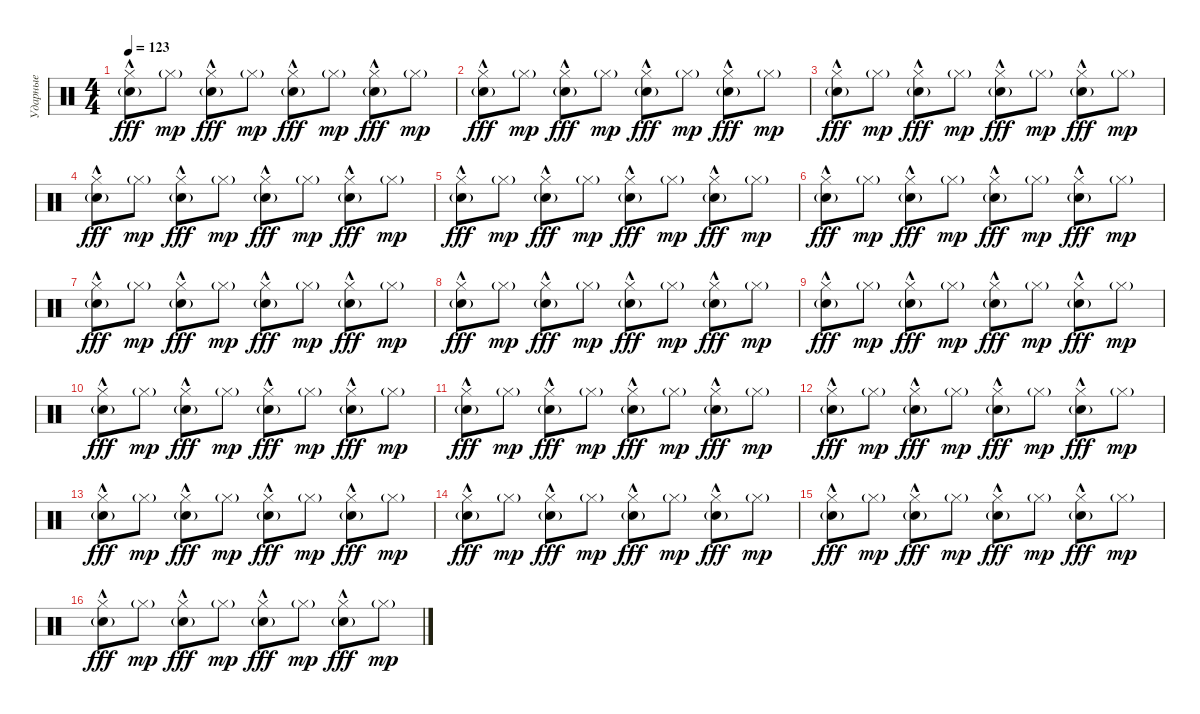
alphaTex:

\track ("Ударные" "Ударные") {instrument percussion}
\staff {score}
\articulation defaults
\ts (4 4)
\tempo 123
\clef neutral
\ks c
("Electric Snare (hit)"{g} "Hi-Hat (closed)"{hac}).8{dy fff} "Hi-Hat (closed)"{g}.8{dy mp} ("Electric Snare (hit)"{g} "Hi-Hat (closed)"{hac}).8{dy fff} "Hi-Hat (closed)"{g}.8{dy mp} ("Electric Snare (hit)"{g} "Hi-Hat (closed)"{hac}).8{dy fff} "Hi-Hat (closed)"{g}.8{dy mp} ("Electric Snare (hit)"{g} "Hi-Hat (closed)"{hac}).8{dy fff} "Hi-Hat (closed)"{g}.8{dy mp} |
("Electric Snare (hit)"{g} "Hi-Hat (closed)"{hac}).8{dy fff} "Hi-Hat (closed)"{g}.8{dy mp} ("Electric Snare (hit)"{g} "Hi-Hat (closed)"{hac}).8{dy fff} "Hi-Hat (closed)"{g}.8{dy mp} ("Electric Snare (hit)"{g} "Hi-Hat (closed)"{hac}).8{dy fff} "Hi-Hat (closed)"{g}.8{dy mp} ("Electric Snare (hit)"{g} "Hi-Hat (closed)"{hac}).8{dy fff} "Hi-Hat (closed)"{g}.8{dy mp} |
("Electric Snare (hit)"{g} "Hi-Hat (closed)"{hac}).8{dy fff} "Hi-Hat (closed)"{g}.8{dy mp} ("Electric Snare (hit)"{g} "Hi-Hat (closed)"{hac}).8{dy fff} "Hi-Hat (closed)"{g}.8{dy mp} ("Electric Snare (hit)"{g} "Hi-Hat (closed)"{hac}).8{dy fff} "Hi-Hat (closed)"{g}.8{dy mp} ("Electric Snare (hit)"{g} "Hi-Hat (closed)"{hac}).8{dy fff} "Hi-Hat (closed)"{g}.8{dy mp} |
("Electric Snare (hit)"{g} "Hi-Hat (closed)"{hac}).8{dy fff} "Hi-Hat (closed)"{g}.8{dy mp} ("Electric Snare (hit)"{g} "Hi-Hat (closed)"{hac}).8{dy fff} "Hi-Hat (closed)"{g}.8{dy mp} ("Electric Snare (hit)"{g} "Hi-Hat (closed)"{hac}).8{dy fff} "Hi-Hat (closed)"{g}.8{dy mp} ("Electric Snare (hit)"{g} "Hi-Hat (closed)"{hac}).8{dy fff} "Hi-Hat (closed)"{g}.8{dy mp} |
("Electric Snare (hit)"{g} "Hi-Hat (closed)"{hac}).8{dy fff} "Hi-Hat (closed)"{g}.8{dy mp} ("Electric Snare (hit)"{g} "Hi-Hat (closed)"{hac}).8{dy fff} "Hi-Hat (closed)"{g}.8{dy mp} ("Electric Snare (hit)"{g} "Hi-Hat (closed)"{hac}).8{dy fff} "Hi-Hat (closed)"{g}.8{dy mp} ("Electric Snare (hit)"{g} "Hi-Hat (closed)"{hac}).8{dy fff} "Hi-Hat (closed)"{g}.8{dy mp} |
("Electric Snare (hit)"{g} "Hi-Hat (closed)"{hac}).8{dy fff} "Hi-Hat (closed)"{g}.8{dy mp} ("Electric Snare (hit)"{g} "Hi-Hat (closed)"{hac}).8{dy fff} "Hi-Hat (closed)"{g}.8{dy mp} ("Electric Snare (hit)"{g} "Hi-Hat (closed)"{hac}).8{dy fff} "Hi-Hat (closed)"{g}.8{dy mp} ("Electric Snare (hit)"{g} "Hi-Hat (closed)"{hac}).8{dy fff} "Hi-Hat (closed)"{g}.8{dy mp} |
("Electric Snare (hit)"{g} "Hi-Hat (closed)"{hac}).8{dy fff} "Hi-Hat (closed)"{g}.8{dy mp} ("Electric Snare (hit)"{g} "Hi-Hat (closed)"{hac}).8{dy fff} "Hi-Hat (closed)"{g}.8{dy mp} ("Electric Snare (hit)"{g} "Hi-Hat (closed)"{hac}).8{dy fff} "Hi-Hat (closed)"{g}.8{dy mp} ("Electric Snare (hit)"{g} "Hi-Hat (closed)"{hac}).8{dy fff} "Hi-Hat (closed)"{g}.8{dy mp} |
("Electric Snare (hit)"{g} "Hi-Hat (closed)"{hac}).8{dy fff} "Hi-Hat (closed)"{g}.8{dy mp} ("Electric Snare (hit)"{g} "Hi-Hat (closed)"{hac}).8{dy fff} "Hi-Hat (closed)"{g}.8{dy mp} ("Electric Snare (hit)"{g} "Hi-Hat (closed)"{hac}).8{dy fff} "Hi-Hat (closed)"{g}.8{dy mp} ("Electric Snare (hit)"{g} "Hi-Hat (closed)"{hac}).8{dy fff} "Hi-Hat (closed)"{g}.8{dy mp} |
("Electric Snare (hit)"{g} "Hi-Hat (closed)"{hac}).8{dy fff} "Hi-Hat (closed)"{g}.8{dy mp} ("Electric Snare (hit)"{g} "Hi-Hat (closed)"{hac}).8{dy fff} "Hi-Hat (closed)"{g}.8{dy mp} ("Electric Snare (hit)"{g} "Hi-Hat (closed)"{hac}).8{dy fff} "Hi-Hat (closed)"{g}.8{dy mp} ("Electric Snare (hit)"{g} "Hi-Hat (closed)"{hac}).8{dy fff} "Hi-Hat (closed)"{g}.8{dy mp} |
("Electric Snare (hit)"{g} "Hi-Hat (closed)"{hac}).8{dy fff} "Hi-Hat (closed)"{g}.8{dy mp} ("Electric Snare (hit)"{g} "Hi-Hat (closed)"{hac}).8{dy fff} "Hi-Hat (closed)"{g}.8{dy mp} ("Electric Snare (hit)"{g} "Hi-Hat (closed)"{hac}).8{dy fff} "Hi-Hat (closed)"{g}.8{dy mp} ("Electric Snare (hit)"{g} "Hi-Hat (closed)"{hac}).8{dy fff} "Hi-Hat (closed)"{g}.8{dy mp} |
("Electric Snare (hit)"{g} "Hi-Hat (closed)"{hac}).8{dy fff} "Hi-Hat (closed)"{g}.8{dy mp} ("Electric Snare (hit)"{g} "Hi-Hat (closed)"{hac}).8{dy fff} "Hi-Hat (closed)"{g}.8{dy mp} ("Electric Snare (hit)"{g} "Hi-Hat (closed)"{hac}).8{dy fff} "Hi-Hat (closed)"{g}.8{dy mp} ("Electric Snare (hit)"{g} "Hi-Hat (closed)"{hac}).8{dy fff} "Hi-Hat (closed)"{g}.8{dy mp} |
("Electric Snare (hit)"{g} "Hi-Hat (closed)"{hac}).8{dy fff} "Hi-Hat (closed)"{g}.8{dy mp} ("Electric Snare (hit)"{g} "Hi-Hat (closed)"{hac}).8{dy fff} "Hi-Hat (closed)"{g}.8{dy mp} ("Electric Snare (hit)"{g} "Hi-Hat (closed)"{hac}).8{dy fff} "Hi-Hat (closed)"{g}.8{dy mp} ("Electric Snare (hit)"{g} "Hi-Hat (closed)"{hac}).8{dy fff} "Hi-Hat (closed)"{g}.8{dy mp} |
("Electric Snare (hit)"{g} "Hi-Hat (closed)"{hac}).8{dy fff} "Hi-Hat (closed)"{g}.8{dy mp} ("Electric Snare (hit)"{g} "Hi-Hat (closed)"{hac}).8{dy fff} "Hi-Hat (closed)"{g}.8{dy mp} ("Electric Snare (hit)"{g} "Hi-Hat (closed)"{hac}).8{dy fff} "Hi-Hat (closed)"{g}.8{dy mp} ("Electric Snare (hit)"{g} "Hi-Hat (closed)"{hac}).8{dy fff} "Hi-Hat (closed)"{g}.8{dy mp} |
("Electric Snare (hit)"{g} "Hi-Hat (closed)"{hac}).8{dy fff} "Hi-Hat (closed)"{g}.8{dy mp} ("Electric Snare (hit)"{g} "Hi-Hat (closed)"{hac}).8{dy fff} "Hi-Hat (closed)"{g}.8{dy mp} ("Electric Snare (hit)"{g} "Hi-Hat (closed)"{hac}).8{dy fff} "Hi-Hat (closed)"{g}.8{dy mp} ("Electric Snare (hit)"{g} "Hi-Hat (closed)"{hac}).8{dy fff} "Hi-Hat (closed)"{g}.8{dy mp} |
("Electric Snare (hit)"{g} "Hi-Hat (closed)"{hac}).8{dy fff} "Hi-Hat (closed)"{g}.8{dy mp} ("Electric Snare (hit)"{g} "Hi-Hat (closed)"{hac}).8{dy fff} "Hi-Hat (closed)"{g}.8{dy mp} ("Electric Snare (hit)"{g} "Hi-Hat (closed)"{hac}).8{dy fff} "Hi-Hat (closed)"{g}.8{dy mp} ("Electric Snare (hit)"{g} "Hi-Hat (closed)"{hac}).8{dy fff} "Hi-Hat (closed)"{g}.8{dy mp} |
("Electric Snare (hit)"{g} "Hi-Hat (closed)"{hac}).8{dy fff} "Hi-Hat (closed)"{g}.8{dy mp} ("Electric Snare (hit)"{g} "Hi-Hat (closed)"{hac}).8{dy fff} "Hi-Hat (closed)"{g}.8{dy mp} ("Electric Snare (hit)"{g} "Hi-Hat (closed)"{hac}).8{dy fff} "Hi-Hat (closed)"{g}.8{dy mp} ("Electric Snare (hit)"{g} "Hi-Hat (closed)"{hac}).8{dy fff} "Hi-Hat (closed)"{g}.8{dy mp}
